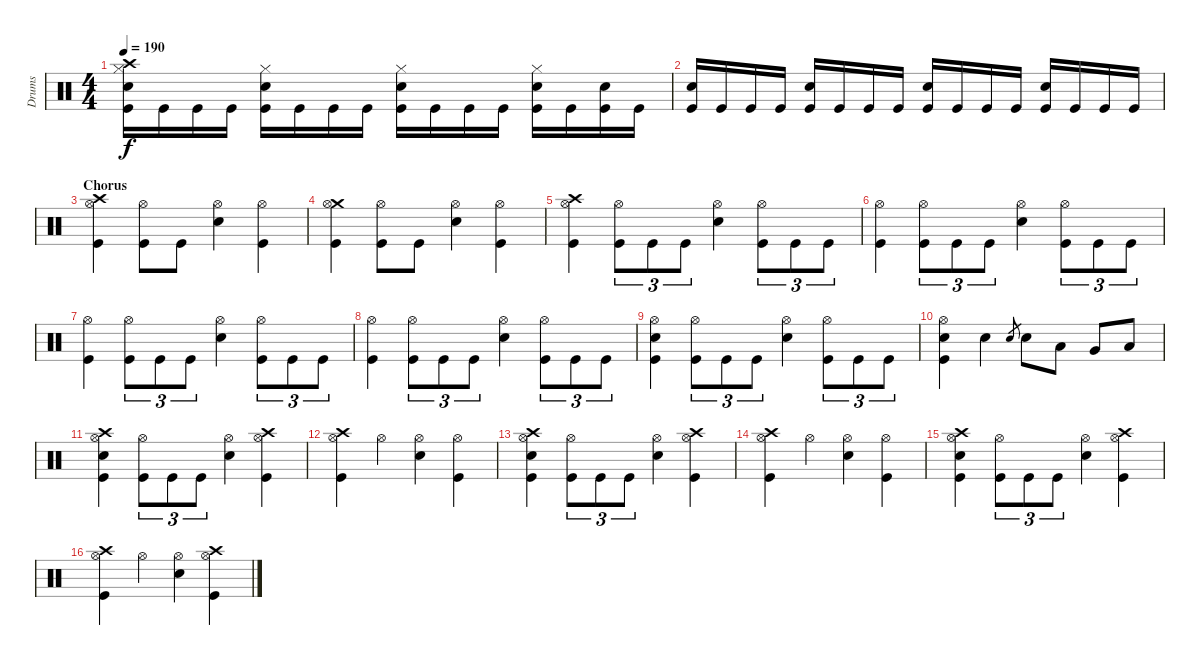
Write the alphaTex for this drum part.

\track ("Drums" "Drums") {instrument percussion}
\staff {score}
\articulation defaults
\ts (4 4)
\tempo 190
\clef neutral
\ks c
("Crash high (hit)" "Hi-Hat (closed)" "Snare (hit) 2" "Kick (hit)").16{dy f} "Kick (hit)".16 "Kick (hit)".16 "Kick (hit)".16 ("Hi-Hat (closed)" "Snare (hit) 2" "Kick (hit)").16 "Kick (hit)".16 "Kick (hit)".16 "Kick (hit)".16 ("Hi-Hat (closed)" "Snare (hit) 2" "Kick (hit)").16 "Kick (hit)".16 "Kick (hit)".16 "Kick (hit)".16 ("Hi-Hat (closed)" "Snare (hit) 2" "Kick (hit)").16 "Kick (hit)".16 ("Snare (hit) 2" "Kick (hit)").16 "Kick (hit)".16 |
("Snare (hit) 2" "Kick (hit)").16 "Kick (hit)".16 "Kick (hit)".16 "Kick (hit)".16 ("Snare (hit) 2" "Kick (hit)").16 "Kick (hit)".16 "Kick (hit)".16 "Kick (hit)".16 ("Snare (hit) 2" "Kick (hit)").16 "Kick (hit)".16 "Kick (hit)".16 "Kick (hit)".16 ("Snare (hit) 2" "Kick (hit)").16 "Kick (hit)".16 "Kick (hit)".16 "Kick (hit)".16 |
\section ("" "Chorus")
("Crash high (hit)" "Hi-Hat (open)" "Kick (hit)").4 ("Hi-Hat (open)" "Kick (hit)").8 "Kick (hit)".8 ("Hi-Hat (open)" "Snare (hit) 2").4 ("Hi-Hat (open)" "Kick (hit)").4 |
("Crash medium (hit)" "Hi-Hat (open)" "Kick (hit)").4 ("Hi-Hat (open)" "Kick (hit)").8 "Kick (hit)".8 ("Hi-Hat (open)" "Snare (hit) 2").4 ("Hi-Hat (open)" "Kick (hit)").4 |
("Crash high (hit)" "Hi-Hat (open)" "Kick (hit)").4 ("Hi-Hat (open)" "Kick (hit)").8{tu (3 2)} "Kick (hit)".8{tu (3 2)} "Kick (hit)".8{tu (3 2)} ("Hi-Hat (open)" "Snare (hit) 2").4 ("Hi-Hat (open)" "Kick (hit)").8{tu (3 2)} "Kick (hit)".8{tu (3 2)} "Kick (hit)".8{tu (3 2)} |
("Hi-Hat (open)" "Kick (hit)").4 ("Hi-Hat (open)" "Kick (hit)").8{tu (3 2)} "Kick (hit)".8{tu (3 2)} "Kick (hit)".8{tu (3 2)} ("Hi-Hat (open)" "Snare (hit) 2").4 ("Hi-Hat (open)" "Kick (hit)").8{tu (3 2)} "Kick (hit)".8{tu (3 2)} "Kick (hit)".8{tu (3 2)} |
("Hi-Hat (open)" "Kick (hit)").4 ("Hi-Hat (open)" "Kick (hit)").8{tu (3 2)} "Kick (hit)".8{tu (3 2)} "Kick (hit)".8{tu (3 2)} ("Hi-Hat (open)" "Snare (hit) 2").4 ("Hi-Hat (open)" "Kick (hit)").8{tu (3 2)} "Kick (hit)".8{tu (3 2)} "Kick (hit)".8{tu (3 2)} |
("Hi-Hat (open)" "Kick (hit)").4 ("Hi-Hat (open)" "Kick (hit)").8{tu (3 2)} "Kick (hit)".8{tu (3 2)} "Kick (hit)".8{tu (3 2)} ("Hi-Hat (open)" "Snare (hit) 2").4 ("Hi-Hat (open)" "Kick (hit)").8{tu (3 2)} "Kick (hit)".8{tu (3 2)} "Kick (hit)".8{tu (3 2)} |
("Hi-Hat (open)" "Snare (hit) 2" "Kick (hit)").4 ("Hi-Hat (open)" "Kick (hit)").8{tu (3 2)} "Kick (hit)".8{tu (3 2)} "Kick (hit)".8{tu (3 2)} ("Hi-Hat (open)" "Snare (hit) 2").4 ("Hi-Hat (open)" "Kick (hit)").8{tu (3 2)} "Kick (hit)".8{tu (3 2)} "Kick (hit)".8{tu (3 2)} |
("Hi-Hat (open)" "Snare (hit) 2" "Kick (hit)").4 "Snare (hit) 2".4 "Snare (hit) 2".8{gr} "Snare (hit) 2".8 "Low Tom (hit)".8 "Very Low Tom (hit)".8 "Low Floor Tom (hit)".8 |
("Crash high (hit)" "Hi-Hat (open)" "Snare (hit) 2" "Kick (hit)").4 ("Hi-Hat (open)" "Kick (hit)").8{tu (3 2)} "Kick (hit)".8{tu (3 2)} "Kick (hit)".8{tu (3 2)} ("Hi-Hat (open)" "Snare (hit) 2").4 ("Crash high (hit)" "Hi-Hat (open)" "Kick (hit)").4 |
("Crash high (hit)" "Hi-Hat (open)" "Kick (hit)").4 "Hi-Hat (open)".4 ("Hi-Hat (open)" "Snare (hit) 2").4 ("Hi-Hat (open)" "Kick (hit)").4 |
("Crash high (hit)" "Hi-Hat (open)" "Snare (hit) 2" "Kick (hit)").4 ("Hi-Hat (open)" "Kick (hit)").8{tu (3 2)} "Kick (hit)".8{tu (3 2)} "Kick (hit)".8{tu (3 2)} ("Hi-Hat (open)" "Snare (hit) 2").4 ("Crash high (hit)" "Hi-Hat (open)" "Kick (hit)").4 |
("Crash high (hit)" "Hi-Hat (open)" "Kick (hit)").4 "Hi-Hat (open)".4 ("Hi-Hat (open)" "Snare (hit) 2").4 ("Hi-Hat (open)" "Kick (hit)").4 |
("Crash high (hit)" "Hi-Hat (open)" "Snare (hit) 2" "Kick (hit)").4 ("Hi-Hat (open)" "Kick (hit)").8{tu (3 2)} "Kick (hit)".8{tu (3 2)} "Kick (hit)".8{tu (3 2)} ("Hi-Hat (open)" "Snare (hit) 2").4 ("Crash high (hit)" "Hi-Hat (open)" "Kick (hit)").4 |
("Crash high (hit)" "Hi-Hat (open)" "Kick (hit)").4 "Hi-Hat (open)".4 ("Hi-Hat (open)" "Snare (hit) 2").4 ("Crash high (hit)" "Hi-Hat (open)" "Kick (hit)").4
